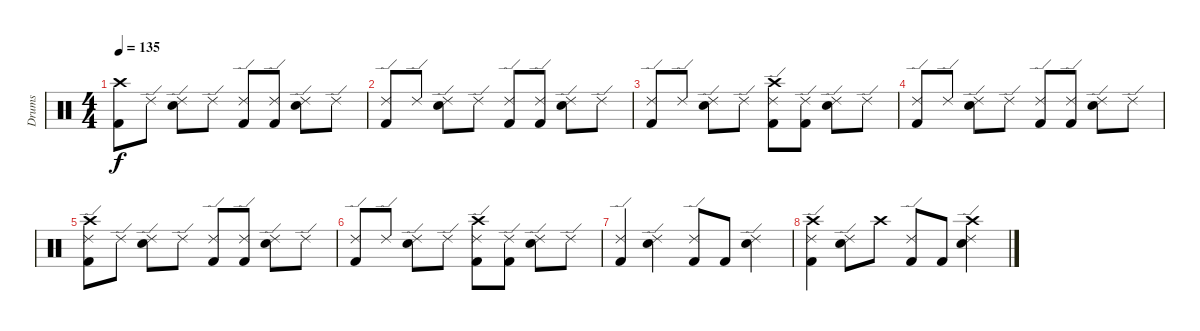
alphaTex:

\track ("Drums" "Drums") {instrument percussion}
\staff {score}
\articulation defaults
\ts (4 4)
\tempo 135
\clef neutral
\ks c
("Crash high (hit)" "Kick (hit) 2").8{dy f} "Ride (edge) 2".8 ("Snare (hit) 2" "Ride (edge) 2").8 "Ride (edge) 2".8 ("Ride (edge) 2" "Kick (hit) 2").8 ("Ride (edge) 2" "Kick (hit) 2").8 ("Snare (hit) 2" "Ride (edge) 2").8 "Ride (edge) 2".8 |
("Ride (edge) 2" "Kick (hit) 2").8 "Ride (edge) 2".8 ("Snare (hit) 2" "Ride (edge) 2").8 "Ride (edge) 2".8 ("Ride (edge) 2" "Kick (hit) 2").8 ("Ride (edge) 2" "Kick (hit) 2").8 ("Snare (hit) 2" "Ride (edge) 2").8 "Ride (edge) 2".8 |
("Ride (edge) 2" "Kick (hit) 2").8 "Ride (edge) 2".8 ("Snare (hit) 2" "Ride (edge) 2").8 "Ride (edge) 2".8 ("Crash high (hit)" "Ride (edge) 2" "Kick (hit) 2").8 ("Ride (edge) 2" "Kick (hit) 2").8 ("Snare (hit) 2" "Ride (edge) 2").8 "Ride (edge) 2".8 |
("Ride (edge) 2" "Kick (hit) 2").8 "Ride (edge) 2".8 ("Snare (hit) 2" "Ride (edge) 2").8 "Ride (edge) 2".8 ("Ride (edge) 2" "Kick (hit) 2").8 ("Ride (edge) 2" "Kick (hit) 2").8 ("Snare (hit) 2" "Ride (edge) 2").8 "Ride (edge) 2".8 |
("Crash high (hit)" "Ride (edge) 2" "Kick (hit) 2").8 "Ride (edge) 2".8 ("Snare (hit) 2" "Ride (edge) 2").8 "Ride (edge) 2".8 ("Ride (edge) 2" "Kick (hit) 2").8 ("Ride (edge) 2" "Kick (hit) 2").8 ("Snare (hit) 2" "Ride (edge) 2").8 "Ride (edge) 2".8 |
("Ride (edge) 2" "Kick (hit) 2").8 "Ride (edge) 2".8 ("Snare (hit) 2" "Ride (edge) 2").8 "Ride (edge) 2".8 ("Crash high (hit)" "Ride (edge) 2" "Kick (hit) 2").8 ("Ride (edge) 2" "Kick (hit) 2").8 ("Snare (hit) 2" "Ride (edge) 2").8 "Ride (edge) 2".8 |
("Ride (edge) 2" "Kick (hit) 2").4 ("Snare (hit) 2" "Ride (edge) 2").4 ("Ride (edge) 2" "Kick (hit) 2").8 "Kick (hit) 2".8 ("Snare (hit) 2" "Ride (edge) 2").4 |
("Crash high (hit)" "Ride (edge) 2" "Kick (hit) 2").4 ("Snare (hit) 2" "Ride (edge) 2").8 "Crash high (hit)".8 ("Ride (edge) 2" "Kick (hit) 2").8 "Kick (hit) 2".8 ("Crash high (hit)" "Snare (hit) 2" "Ride (edge) 2").4
